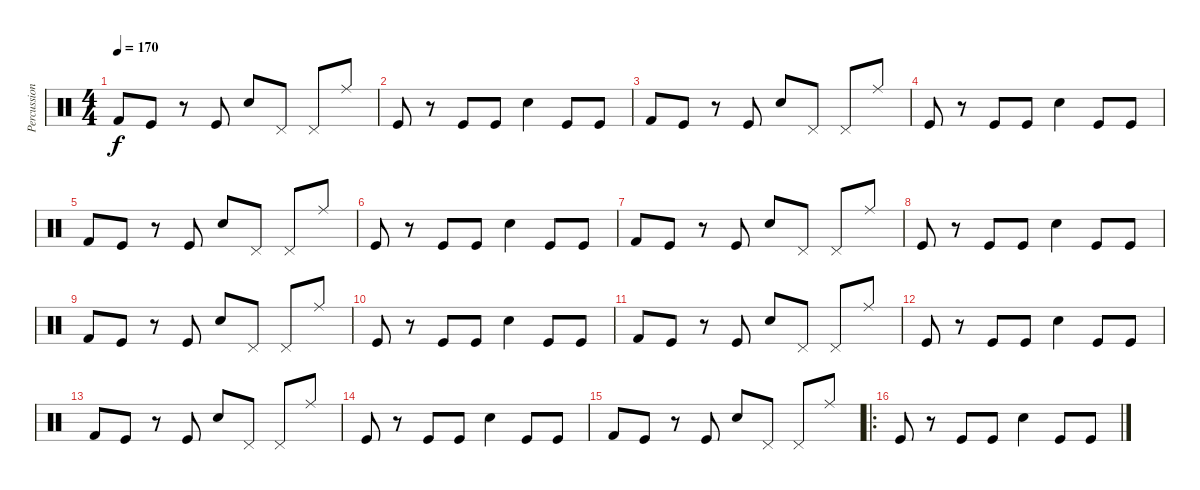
\track ("Percussion" "Percussion") {instrument percussion}
\staff {score}
\articulation defaults
\ts (4 4)
\tempo 170
\clef neutral
\ks c "Kick (hit) 2".8{dy f} "Kick (hit)".8
r.8 "Kick (hit)".8 "Electric Snare (hit)".8 "Pedal Hi-Hat (hit)".8 "Pedal Hi-Hat (hit)".8 "Ride (middle)".8 |
"Kick (hit)".8 r.8 "Kick (hit)".8 "Kick (hit)".8 "Electric Snare (hit)".4 "Kick (hit)".8 "Kick (hit)".8 |
"Kick (hit) 2".8 "Kick (hit)".8 r.8 "Kick (hit)".8 "Electric Snare (hit)".8 "Pedal Hi-Hat (hit)".8 "Pedal Hi-Hat (hit)".8 "Ride (middle)".8 |
"Kick (hit)".8 r.8 "Kick (hit)".8 "Kick (hit)".8 "Electric Snare (hit)".4 "Kick (hit)".8 "Kick (hit)".8 |
"Kick (hit) 2".8 "Kick (hit)".8 r.8 "Kick (hit)".8 "Electric Snare (hit)".8 "Pedal Hi-Hat (hit)".8 "Pedal Hi-Hat (hit)".8 "Ride (middle)".8 |
"Kick (hit)".8 r.8 "Kick (hit)".8 "Kick (hit)".8 "Electric Snare (hit)".4 "Kick (hit)".8 "Kick (hit)".8 |
"Kick (hit) 2".8 "Kick (hit)".8 r.8 "Kick (hit)".8 "Electric Snare (hit)".8 "Pedal Hi-Hat (hit)".8 "Pedal Hi-Hat (hit)".8 "Ride (middle)".8 |
"Kick (hit)".8 r.8 "Kick (hit)".8 "Kick (hit)".8 "Electric Snare (hit)".4 "Kick (hit)".8 "Kick (hit)".8 |
"Kick (hit) 2".8 "Kick (hit)".8 r.8 "Kick (hit)".8 "Electric Snare (hit)".8 "Pedal Hi-Hat (hit)".8 "Pedal Hi-Hat (hit)".8 "Ride (middle)".8 |
"Kick (hit)".8 r.8 "Kick (hit)".8 "Kick (hit)".8 "Electric Snare (hit)".4 "Kick (hit)".8 "Kick (hit)".8 |
"Kick (hit) 2".8 "Kick (hit)".8 r.8 "Kick (hit)".8 "Electric Snare (hit)".8 "Pedal Hi-Hat (hit)".8 "Pedal Hi-Hat (hit)".8 "Ride (middle)".8 |
"Kick (hit)".8 r.8 "Kick (hit)".8 "Kick (hit)".8 "Electric Snare (hit)".4 "Kick (hit)".8 "Kick (hit)".8 |
"Kick (hit) 2".8 "Kick (hit)".8 r.8 "Kick (hit)".8 "Electric Snare (hit)".8 "Pedal Hi-Hat (hit)".8 "Pedal Hi-Hat (hit)".8 "Ride (middle)".8 |
"Kick (hit)".8 r.8 "Kick (hit)".8 "Kick (hit)".8 "Electric Snare (hit)".4 "Kick (hit)".8 "Kick (hit)".8 |
"Kick (hit) 2".8 "Kick (hit)".8 r.8 "Kick (hit)".8 "Electric Snare (hit)".8 "Pedal Hi-Hat (hit)".8 "Pedal Hi-Hat (hit)".8 "Ride (middle)".8 |
\ro "Kick (hit)".8
r.8 "Kick (hit)".8 "Kick (hit)".8 "Electric Snare (hit)".4 "Kick (hit)".8 "Kick (hit)".8
